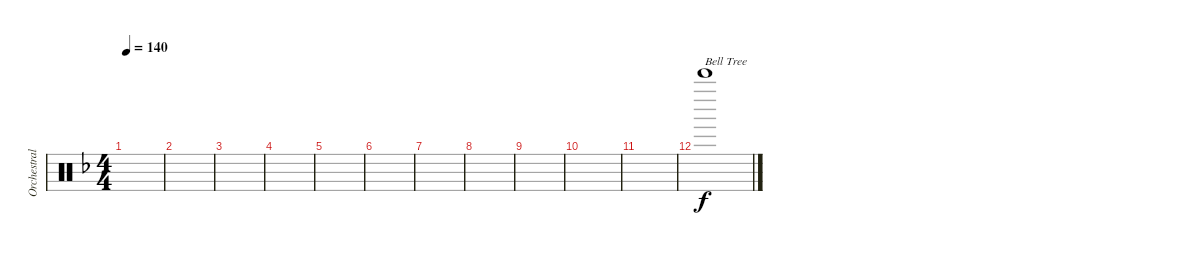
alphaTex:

\track ("Orchestral Percussion I" "Orchestral") {instrument percussion}
\staff {score}
\articulation defaults
\ts (4 4)
\tempo 140
\clef neutral
\ks dminor
|
|
|
|
|
|
|
|
|
|
|
"Bell Tree (hit)".1{txt "Bell Tree"}
